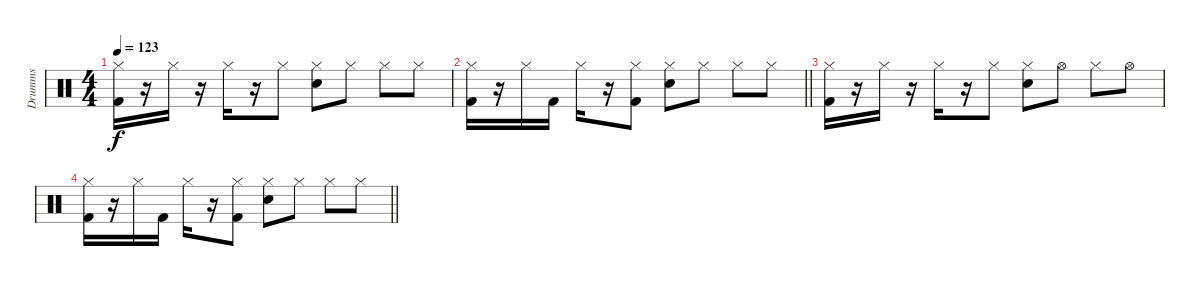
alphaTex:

\track ("Drumms" "Drumms") {instrument percussion}
\staff {score}
\articulation defaults
\ts (4 4)
\tempo 123
\clef neutral
\ks aminor
("Hi-Hat (closed)" "Kick (hit) 2").16{dy f} r.16 "Hi-Hat (closed)".16 r.16 "Hi-Hat (closed)".16 r.16 "Hi-Hat (closed)".8 ("Hi-Hat (closed)" "Snare (hit) 2").8 "Hi-Hat (closed)".8 "Hi-Hat (closed)".8 "Hi-Hat (closed)".8 |
\barLineRight lightlight
("Hi-Hat (closed)" "Kick (hit) 2").16 r.16 "Hi-Hat (closed)".16 "Kick (hit) 2".16 "Hi-Hat (closed)".16 r.16 ("Hi-Hat (closed)" "Kick (hit) 2").8 ("Hi-Hat (closed)" "Snare (hit) 2").8 "Hi-Hat (closed)".8 "Hi-Hat (closed)".8 "Hi-Hat (closed)".8 |
("Hi-Hat (closed)" "Kick (hit) 2").16 r.16 "Hi-Hat (closed)".16 r.16 "Hi-Hat (closed)".16 r.16 "Hi-Hat (closed)".8 ("Hi-Hat (closed)" "Snare (hit) 2").8 "Hi-Hat (open)".8 "Hi-Hat (closed)".8 "Hi-Hat (open)".8 |
\barLineRight lightlight
("Hi-Hat (closed)" "Kick (hit) 2").16 r.16 "Hi-Hat (closed)".16 "Kick (hit) 2".16 "Hi-Hat (closed)".16 r.16 ("Hi-Hat (closed)" "Kick (hit) 2").8 ("Hi-Hat (closed)" "Snare (hit) 2").8 "Hi-Hat (closed)".8 "Hi-Hat (closed)".8 "Hi-Hat (closed)".8
